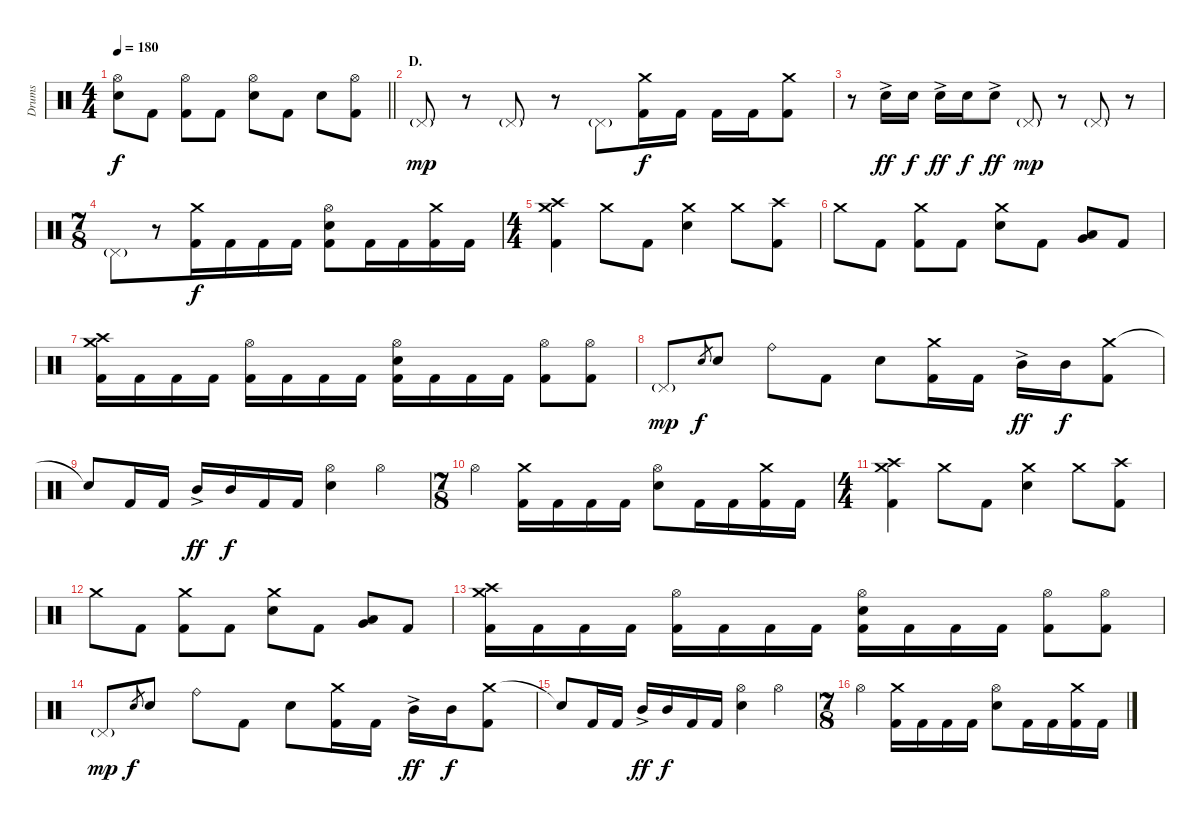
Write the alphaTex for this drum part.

\track ("Drums" "Drums") {instrument percussion}
\staff {score}
\articulation defaults
\ts (4 4)
\tempo 180
\clef neutral
\barLineRight lightlight
\ks c
("Hi-Hat (open)" "Electric Snare (hit)").8{dy f} "Kick (hit) 2".8 ("Hi-Hat (open)" "Kick (hit) 2").8 "Kick (hit) 2".8 ("Hi-Hat (open)" "Electric Snare (hit)").8 "Kick (hit) 2".8 "Electric Snare (hit)".8 ("Hi-Hat (open)" "Kick (hit) 2").8 |
\section ("" "D.")
"Pedal Hi-Hat (hit)"{g}.8{dy mp} r.8 "Pedal Hi-Hat (hit)"{g}.8 r.8 "Pedal Hi-Hat (hit)"{g}.8 ("Crash medium (hit)" "Kick (hit) 2").16{dy f} "Kick (hit) 2".16 "Kick (hit) 2".16 "Kick (hit) 2".16 ("Crash medium (hit)" "Kick (hit) 2").8 |
r.8 "Electric Snare (hit)"{ac}.16{dy ff} "Electric Snare (hit)".16{dy f} "Electric Snare (hit)"{ac}.16{dy ff} "Electric Snare (hit)".16{dy f} "Electric Snare (hit)"{ac}.8{dy ff} "Pedal Hi-Hat (hit)"{g}.8{dy mp} r.8 "Pedal Hi-Hat (hit)"{g}.8 r.8 |
\ts (7 8)
"Pedal Hi-Hat (hit)"{g}.8 r.8 ("Crash medium (hit)" "Kick (hit) 2").16{dy f} "Kick (hit) 2".16 "Kick (hit) 2".16 "Kick (hit) 2".16 ("Hi-Hat (open)" "Electric Snare (hit)" "Kick (hit) 2").8 "Kick (hit) 2".16 "Kick (hit) 2".16 ("Crash medium (hit)" "Kick (hit) 2").16 "Kick (hit) 2".16 |
\ts (4 4)
("Crash medium (hit)" "Crash high (hit)" "Kick (hit) 2").4 "Crash medium (hit)".8 "Kick (hit) 2".8 ("Crash medium (hit)" "Electric Snare (hit)").4 "Crash medium (hit)".8 ("Crash high (hit)" "Kick (hit) 2").8 |
"Crash medium (hit)".8 "Kick (hit) 2".8 ("Crash medium (hit)" "Kick (hit) 2").8 "Kick (hit) 2".8 ("Crash medium (hit)" "Electric Snare (hit)").8 "Kick (hit) 2".8 ("Very Low Tom (hit)" "Low Floor Tom (hit)").8{bu 120} "Kick (hit) 2".8 |
("Crash medium (hit)" "Crash high (hit)" "Kick (hit) 2").16 "Kick (hit) 2".16 "Kick (hit) 2".16 "Kick (hit) 2".16 ("Hi-Hat (open)" "Kick (hit) 2").16 "Kick (hit) 2".16 "Kick (hit) 2".16 "Kick (hit) 2".16 ("Hi-Hat (open)" "Electric Snare (hit)" "Kick (hit) 2").16 "Kick (hit) 2".16 "Kick (hit) 2".16 "Kick (hit) 2".16 ("Hi-Hat (open)" "Kick (hit) 2").8 ("Hi-Hat (open)" "Kick (hit) 2").8 |
"Pedal Hi-Hat (hit)"{g}.8{dy mp} "Electric Snare (hit)".8{gr dy f} "Electric Snare (hit)".8 "Ride (bell)".8 "Kick (hit) 2".8 "Electric Snare (hit)".8 ("Crash medium (hit)" "Kick (hit) 2").16 "Kick (hit) 2".16 "Mid Tom (hit)"{ac}.16{dy ff} "Mid Tom (hit)".16{dy f} ("Crash medium (hit)" "Kick (hit) 2").8 |
"Snare (hit)"{t}.8 "Kick (hit) 2".16 "Kick (hit) 2".16 "Mid Tom (hit)"{ac}.16{dy ff} "Mid Tom (hit)".16{dy f} "Kick (hit) 2".16 "Kick (hit) 2".16 ("Hi-Hat (open)" "Electric Snare (hit)").4 "Hi-Hat (open)".4 |
\ts (7 8)
"Hi-Hat (open)".4 ("Crash medium (hit)" "Kick (hit) 2").16 "Kick (hit) 2".16 "Kick (hit) 2".16 "Kick (hit) 2".16 ("Hi-Hat (open)" "Electric Snare (hit)").8 "Kick (hit) 2".16 "Kick (hit) 2".16 ("Crash medium (hit)" "Kick (hit) 2").16 "Kick (hit) 2".16 |
\ts (4 4)
("Crash medium (hit)" "Crash high (hit)" "Kick (hit) 2").4 "Crash medium (hit)".8 "Kick (hit) 2".8 ("Crash medium (hit)" "Electric Snare (hit)").4 "Crash medium (hit)".8 ("Crash high (hit)" "Kick (hit) 2").8 |
"Crash medium (hit)".8 "Kick (hit) 2".8 ("Crash medium (hit)" "Kick (hit) 2").8 "Kick (hit) 2".8 ("Crash medium (hit)" "Electric Snare (hit)").8 "Kick (hit) 2".8 ("Very Low Tom (hit)" "Low Floor Tom (hit)").8{bu 120} "Kick (hit) 2".8 |
("Crash medium (hit)" "Crash high (hit)" "Kick (hit) 2").16 "Kick (hit) 2".16 "Kick (hit) 2".16 "Kick (hit) 2".16 ("Hi-Hat (open)" "Kick (hit) 2").16 "Kick (hit) 2".16 "Kick (hit) 2".16 "Kick (hit) 2".16 ("Hi-Hat (open)" "Electric Snare (hit)" "Kick (hit) 2").16 "Kick (hit) 2".16 "Kick (hit) 2".16 "Kick (hit) 2".16 ("Hi-Hat (open)" "Kick (hit) 2").8 ("Hi-Hat (open)" "Kick (hit) 2").8 |
"Pedal Hi-Hat (hit)"{g}.8{dy mp} "Electric Snare (hit)".8{gr dy f} "Electric Snare (hit)".8 "Ride (bell)".8 "Kick (hit) 2".8 "Electric Snare (hit)".8 ("Crash medium (hit)" "Kick (hit) 2").16 "Kick (hit) 2".16 "Mid Tom (hit)"{ac}.16{dy ff} "Mid Tom (hit)".16{dy f} ("Crash medium (hit)" "Kick (hit) 2").8 |
"Snare (hit)"{t}.8 "Kick (hit) 2".16 "Kick (hit) 2".16 "Mid Tom (hit)"{ac}.16{dy ff} "Mid Tom (hit)".16{dy f} "Kick (hit) 2".16 "Kick (hit) 2".16 ("Hi-Hat (open)" "Electric Snare (hit)").4 "Hi-Hat (open)".4 |
\ts (7 8)
"Hi-Hat (open)".4 ("Crash medium (hit)" "Kick (hit) 2").16 "Kick (hit) 2".16 "Kick (hit) 2".16 "Kick (hit) 2".16 ("Hi-Hat (open)" "Electric Snare (hit)").8 "Kick (hit) 2".16 "Kick (hit) 2".16 ("Crash medium (hit)" "Kick (hit) 2").16 "Kick (hit) 2".16
